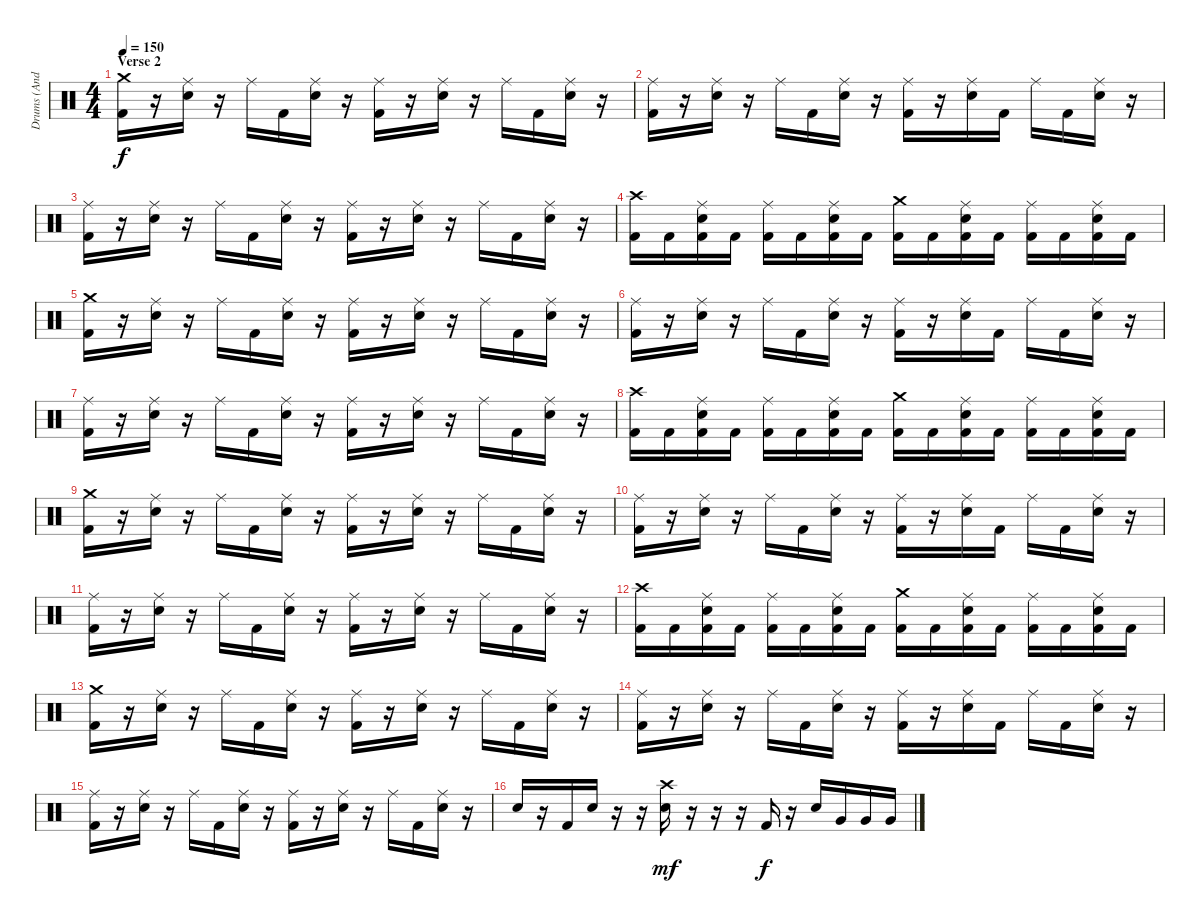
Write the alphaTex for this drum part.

\track ("Drums (Andy C)" "Drums (And") {instrument percussion}
\staff {score}
\articulation defaults
\ts (4 4)
\section ("" "Verse 2")
\tempo 150
\clef neutral
\ks c
("Crash medium (hit)" "Kick (hit) 2").16{dy f} r.16 ("Ride (middle)" "Electric Snare (hit)").16 r.16 "Ride (middle)".16 "Kick (hit) 2".16 ("Ride (middle)" "Electric Snare (hit)").16 r.16 ("Ride (middle)" "Kick (hit) 2").16 r.16 ("Ride (middle)" "Electric Snare (hit)").16 r.16 "Ride (middle)".16 "Kick (hit) 2".16 ("Ride (middle)" "Electric Snare (hit)").16 r.16 |
("Ride (middle)" "Kick (hit) 2").16 r.16 ("Ride (middle)" "Electric Snare (hit)").16 r.16 "Ride (middle)".16 "Kick (hit) 2".16 ("Ride (middle)" "Electric Snare (hit)").16 r.16 ("Ride (middle)" "Kick (hit) 2").16 r.16 ("Ride (middle)" "Electric Snare (hit)").16 "Kick (hit) 2".16 "Ride (middle)".16 "Kick (hit) 2".16 ("Ride (middle)" "Electric Snare (hit)").16 r.16 |
("Ride (middle)" "Kick (hit) 2").16 r.16 ("Ride (middle)" "Electric Snare (hit)").16 r.16 "Ride (middle)".16 "Kick (hit) 2".16 ("Ride (middle)" "Electric Snare (hit)").16 r.16 ("Ride (middle)" "Kick (hit) 2").16 r.16 ("Ride (middle)" "Electric Snare (hit)").16 r.16 "Ride (middle)".16 "Kick (hit) 2".16 ("Ride (middle)" "Electric Snare (hit)").16 r.16 |
("Crash high (hit)" "Kick (hit) 2").16 "Kick (hit) 2".16 ("Ride (middle)" "Kick (hit) 2" "Electric Snare (hit)").16 "Kick (hit) 2".16 ("Ride (middle)" "Kick (hit) 2").16 "Kick (hit) 2".16 ("Ride (middle)" "Kick (hit) 2" "Electric Snare (hit)").16 "Kick (hit) 2".16 ("Crash medium (hit)" "Kick (hit) 2").16 "Kick (hit) 2".16 ("Ride (middle)" "Kick (hit) 2" "Electric Snare (hit)").16 "Kick (hit) 2".16 ("Ride (middle)" "Kick (hit) 2").16 "Kick (hit) 2".16 ("Ride (middle)" "Kick (hit) 2" "Electric Snare (hit)").16 "Kick (hit) 2".16 |
("Crash medium (hit)" "Kick (hit) 2").16 r.16 ("Ride (middle)" "Electric Snare (hit)").16 r.16 "Ride (middle)".16 "Kick (hit) 2".16 ("Ride (middle)" "Electric Snare (hit)").16 r.16 ("Ride (middle)" "Kick (hit) 2").16 r.16 ("Ride (middle)" "Electric Snare (hit)").16 r.16 "Ride (middle)".16 "Kick (hit) 2".16 ("Ride (middle)" "Electric Snare (hit)").16 r.16 |
("Ride (middle)" "Kick (hit) 2").16 r.16 ("Ride (middle)" "Electric Snare (hit)").16 r.16 "Ride (middle)".16 "Kick (hit) 2".16 ("Ride (middle)" "Electric Snare (hit)").16 r.16 ("Ride (middle)" "Kick (hit) 2").16 r.16 ("Ride (middle)" "Electric Snare (hit)").16 "Kick (hit) 2".16 "Ride (middle)".16 "Kick (hit) 2".16 ("Ride (middle)" "Electric Snare (hit)").16 r.16 |
("Ride (middle)" "Kick (hit) 2").16 r.16 ("Ride (middle)" "Electric Snare (hit)").16 r.16 "Ride (middle)".16 "Kick (hit) 2".16 ("Ride (middle)" "Electric Snare (hit)").16 r.16 ("Ride (middle)" "Kick (hit) 2").16 r.16 ("Ride (middle)" "Electric Snare (hit)").16 r.16 "Ride (middle)".16 "Kick (hit) 2".16 ("Ride (middle)" "Electric Snare (hit)").16 r.16 |
("Crash high (hit)" "Kick (hit) 2").16 "Kick (hit) 2".16 ("Ride (middle)" "Kick (hit) 2" "Electric Snare (hit)").16 "Kick (hit) 2".16 ("Ride (middle)" "Kick (hit) 2").16 "Kick (hit) 2".16 ("Ride (middle)" "Kick (hit) 2" "Electric Snare (hit)").16 "Kick (hit) 2".16 ("Crash medium (hit)" "Kick (hit) 2").16 "Kick (hit) 2".16 ("Ride (middle)" "Kick (hit) 2" "Electric Snare (hit)").16 "Kick (hit) 2".16 ("Ride (middle)" "Kick (hit) 2").16 "Kick (hit) 2".16 ("Ride (middle)" "Kick (hit) 2" "Electric Snare (hit)").16 "Kick (hit) 2".16 |
("Crash medium (hit)" "Kick (hit) 2").16 r.16 ("Ride (middle)" "Electric Snare (hit)").16 r.16 "Ride (middle)".16 "Kick (hit) 2".16 ("Ride (middle)" "Electric Snare (hit)").16 r.16 ("Ride (middle)" "Kick (hit) 2").16 r.16 ("Ride (middle)" "Electric Snare (hit)").16 r.16 "Ride (middle)".16 "Kick (hit) 2".16 ("Ride (middle)" "Electric Snare (hit)").16 r.16 |
("Ride (middle)" "Kick (hit) 2").16 r.16 ("Ride (middle)" "Electric Snare (hit)").16 r.16 "Ride (middle)".16 "Kick (hit) 2".16 ("Ride (middle)" "Electric Snare (hit)").16 r.16 ("Ride (middle)" "Kick (hit) 2").16 r.16 ("Ride (middle)" "Electric Snare (hit)").16 "Kick (hit) 2".16 "Ride (middle)".16 "Kick (hit) 2".16 ("Ride (middle)" "Electric Snare (hit)").16 r.16 |
("Ride (middle)" "Kick (hit) 2").16 r.16 ("Ride (middle)" "Electric Snare (hit)").16 r.16 "Ride (middle)".16 "Kick (hit) 2".16 ("Ride (middle)" "Electric Snare (hit)").16 r.16 ("Ride (middle)" "Kick (hit) 2").16 r.16 ("Ride (middle)" "Electric Snare (hit)").16 r.16 "Ride (middle)".16 "Kick (hit) 2".16 ("Ride (middle)" "Electric Snare (hit)").16 r.16 |
("Crash high (hit)" "Kick (hit) 2").16 "Kick (hit) 2".16 ("Ride (middle)" "Kick (hit) 2" "Electric Snare (hit)").16 "Kick (hit) 2".16 ("Ride (middle)" "Kick (hit) 2").16 "Kick (hit) 2".16 ("Ride (middle)" "Kick (hit) 2" "Electric Snare (hit)").16 "Kick (hit) 2".16 ("Crash medium (hit)" "Kick (hit) 2").16 "Kick (hit) 2".16 ("Ride (middle)" "Kick (hit) 2" "Electric Snare (hit)").16 "Kick (hit) 2".16 ("Ride (middle)" "Kick (hit) 2").16 "Kick (hit) 2".16 ("Ride (middle)" "Kick (hit) 2" "Electric Snare (hit)").16 "Kick (hit) 2".16 |
("Crash medium (hit)" "Kick (hit) 2").16 r.16 ("Ride (middle)" "Electric Snare (hit)").16 r.16 "Ride (middle)".16 "Kick (hit) 2".16 ("Ride (middle)" "Electric Snare (hit)").16 r.16 ("Ride (middle)" "Kick (hit) 2").16 r.16 ("Ride (middle)" "Electric Snare (hit)").16 r.16 "Ride (middle)".16 "Kick (hit) 2".16 ("Ride (middle)" "Electric Snare (hit)").16 r.16 |
("Ride (middle)" "Kick (hit) 2").16 r.16 ("Ride (middle)" "Electric Snare (hit)").16 r.16 "Ride (middle)".16 "Kick (hit) 2".16 ("Ride (middle)" "Electric Snare (hit)").16 r.16 ("Ride (middle)" "Kick (hit) 2").16 r.16 ("Ride (middle)" "Electric Snare (hit)").16 "Kick (hit) 2".16 "Ride (middle)".16 "Kick (hit) 2".16 ("Ride (middle)" "Electric Snare (hit)").16 r.16 |
("Ride (middle)" "Kick (hit) 2").16 r.16 ("Ride (middle)" "Electric Snare (hit)").16 r.16 "Ride (middle)".16 "Kick (hit) 2".16 ("Ride (middle)" "Electric Snare (hit)").16 r.16 ("Ride (middle)" "Kick (hit) 2").16 r.16 ("Ride (middle)" "Electric Snare (hit)").16 r.16 "Ride (middle)".16 "Kick (hit) 2".16 ("Ride (middle)" "Electric Snare (hit)").16 r.16 |
"Electric Snare (hit)".16 r.16 "Kick (hit) 2".16 "Electric Snare (hit)".16 r.16 r.16 ("Crash high (hit)" "Electric Snare (hit)").16{dy mf} r.16 r.16 r.16 "Kick (hit) 2".16{dy f} r.16 "Electric Snare (hit)".16 "Very Low Tom (hit)".16 "Very Low Tom (hit)".16 "Very Low Tom (hit)".16
